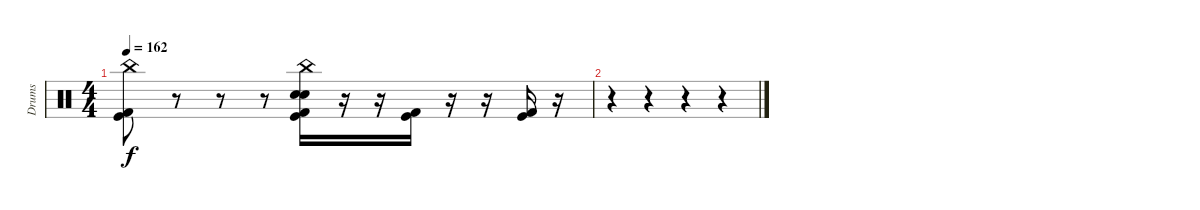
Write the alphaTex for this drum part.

\track ("Drums" "Drums") {instrument percussion}
\staff {score}
\articulation defaults
\ts (4 4)
\tempo 162
\clef neutral
\ks c
("China (hit)" "Kick (hit)" "Kick (hit) 2").8{dy f} r.8 r.8 r.8 ("China (hit)" "Snare (hit) 2" "Electric Snare (hit)" "Kick (hit)" "Kick (hit) 2").16 r.16 r.16 ("Kick (hit)" "Kick (hit) 2").16 r.16 r.16 ("Kick (hit)" "Kick (hit) 2").16 r.16 |
r.4 r.4 r.4 r.4
